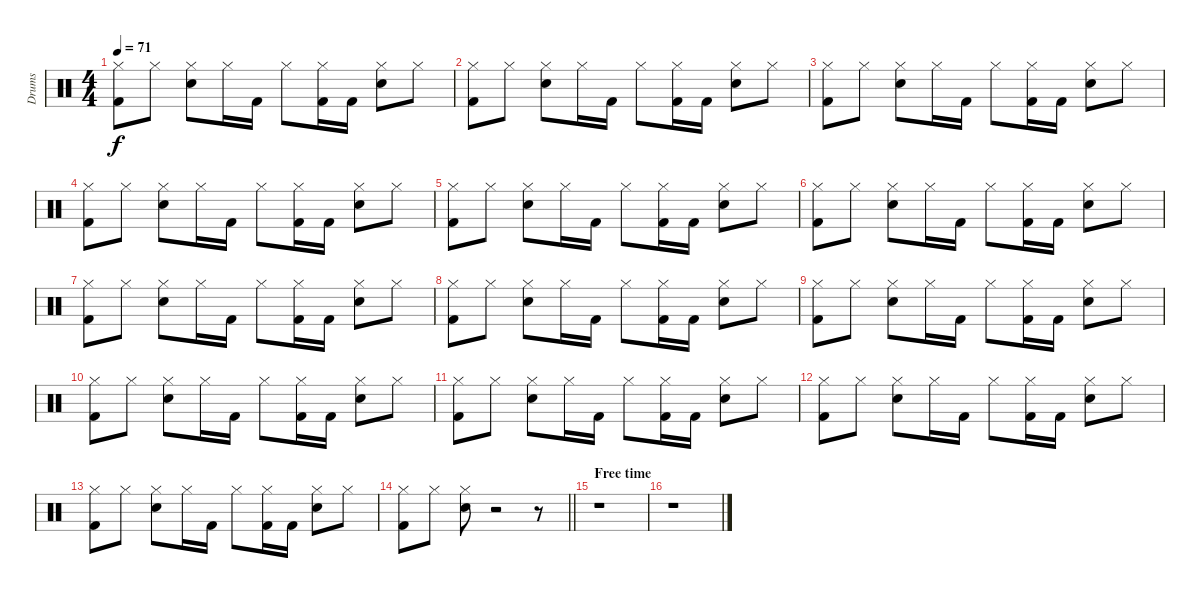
\track ("Drums" "Drums") {instrument percussion}
\staff {score}
\articulation defaults
\ts (4 4)
\tempo 71
\clef neutral
\ks c
("Hi-Hat (closed)" "Kick (hit) 2").8{dy f} "Hi-Hat (closed)".8 ("Hi-Hat (closed)" "Snare (hit) 2").8 "Hi-Hat (closed)".16 "Kick (hit) 2".16 "Hi-Hat (closed)".8 ("Hi-Hat (closed)" "Kick (hit) 2").16 "Kick (hit) 2".16 ("Hi-Hat (closed)" "Snare (hit) 2").8 "Hi-Hat (closed)".8 |
("Hi-Hat (closed)" "Kick (hit) 2").8 "Hi-Hat (closed)".8 ("Hi-Hat (closed)" "Snare (hit) 2").8 "Hi-Hat (closed)".16 "Kick (hit) 2".16 "Hi-Hat (closed)".8 ("Hi-Hat (closed)" "Kick (hit) 2").16 "Kick (hit) 2".16 ("Hi-Hat (closed)" "Snare (hit) 2").8 "Hi-Hat (closed)".8 |
("Hi-Hat (closed)" "Kick (hit) 2").8 "Hi-Hat (closed)".8 ("Hi-Hat (closed)" "Snare (hit) 2").8 "Hi-Hat (closed)".16 "Kick (hit) 2".16 "Hi-Hat (closed)".8 ("Hi-Hat (closed)" "Kick (hit) 2").16 "Kick (hit) 2".16 ("Hi-Hat (closed)" "Snare (hit) 2").8 "Hi-Hat (closed)".8 |
("Hi-Hat (closed)" "Kick (hit) 2").8 "Hi-Hat (closed)".8 ("Hi-Hat (closed)" "Snare (hit) 2").8 "Hi-Hat (closed)".16 "Kick (hit) 2".16 "Hi-Hat (closed)".8 ("Hi-Hat (closed)" "Kick (hit) 2").16 "Kick (hit) 2".16 ("Hi-Hat (closed)" "Snare (hit) 2").8 "Hi-Hat (closed)".8 |
("Hi-Hat (closed)" "Kick (hit) 2").8 "Hi-Hat (closed)".8 ("Hi-Hat (closed)" "Snare (hit) 2").8 "Hi-Hat (closed)".16 "Kick (hit) 2".16 "Hi-Hat (closed)".8 ("Hi-Hat (closed)" "Kick (hit) 2").16 "Kick (hit) 2".16 ("Hi-Hat (closed)" "Snare (hit) 2").8 "Hi-Hat (closed)".8 |
("Hi-Hat (closed)" "Kick (hit) 2").8 "Hi-Hat (closed)".8 ("Hi-Hat (closed)" "Snare (hit) 2").8 "Hi-Hat (closed)".16 "Kick (hit) 2".16 "Hi-Hat (closed)".8 ("Hi-Hat (closed)" "Kick (hit) 2").16 "Kick (hit) 2".16 ("Hi-Hat (closed)" "Snare (hit) 2").8 "Hi-Hat (closed)".8 |
("Hi-Hat (closed)" "Kick (hit) 2").8 "Hi-Hat (closed)".8 ("Hi-Hat (closed)" "Snare (hit) 2").8 "Hi-Hat (closed)".16 "Kick (hit) 2".16 "Hi-Hat (closed)".8 ("Hi-Hat (closed)" "Kick (hit) 2").16 "Kick (hit) 2".16 ("Hi-Hat (closed)" "Snare (hit) 2").8 "Hi-Hat (closed)".8 |
("Hi-Hat (closed)" "Kick (hit) 2").8 "Hi-Hat (closed)".8 ("Hi-Hat (closed)" "Snare (hit) 2").8 "Hi-Hat (closed)".16 "Kick (hit) 2".16 "Hi-Hat (closed)".8 ("Hi-Hat (closed)" "Kick (hit) 2").16 "Kick (hit) 2".16 ("Hi-Hat (closed)" "Snare (hit) 2").8 "Hi-Hat (closed)".8 |
("Hi-Hat (closed)" "Kick (hit) 2").8 "Hi-Hat (closed)".8 ("Hi-Hat (closed)" "Snare (hit) 2").8 "Hi-Hat (closed)".16 "Kick (hit) 2".16 "Hi-Hat (closed)".8 ("Hi-Hat (closed)" "Kick (hit) 2").16 "Kick (hit) 2".16 ("Hi-Hat (closed)" "Snare (hit) 2").8 "Hi-Hat (closed)".8 |
("Hi-Hat (closed)" "Kick (hit) 2").8 "Hi-Hat (closed)".8 ("Hi-Hat (closed)" "Snare (hit) 2").8 "Hi-Hat (closed)".16 "Kick (hit) 2".16 "Hi-Hat (closed)".8 ("Hi-Hat (closed)" "Kick (hit) 2").16 "Kick (hit) 2".16 ("Hi-Hat (closed)" "Snare (hit) 2").8 "Hi-Hat (closed)".8 |
("Hi-Hat (closed)" "Kick (hit) 2").8 "Hi-Hat (closed)".8 ("Hi-Hat (closed)" "Snare (hit) 2").8 "Hi-Hat (closed)".16 "Kick (hit) 2".16 "Hi-Hat (closed)".8 ("Hi-Hat (closed)" "Kick (hit) 2").16 "Kick (hit) 2".16 ("Hi-Hat (closed)" "Snare (hit) 2").8 "Hi-Hat (closed)".8 |
("Hi-Hat (closed)" "Kick (hit) 2").8 "Hi-Hat (closed)".8 ("Hi-Hat (closed)" "Snare (hit) 2").8 "Hi-Hat (closed)".16 "Kick (hit) 2".16 "Hi-Hat (closed)".8 ("Hi-Hat (closed)" "Kick (hit) 2").16 "Kick (hit) 2".16 ("Hi-Hat (closed)" "Snare (hit) 2").8 "Hi-Hat (closed)".8 |
("Hi-Hat (closed)" "Kick (hit) 2").8 "Hi-Hat (closed)".8 ("Hi-Hat (closed)" "Snare (hit) 2").8 "Hi-Hat (closed)".16 "Kick (hit) 2".16 "Hi-Hat (closed)".8 ("Hi-Hat (closed)" "Kick (hit) 2").16 "Kick (hit) 2".16 ("Hi-Hat (closed)" "Snare (hit) 2").8 "Hi-Hat (closed)".8 |
\barLineRight lightlight
("Hi-Hat (closed)" "Kick (hit) 2").8 "Hi-Hat (closed)".8 ("Snare (hit) 2" "Hi-Hat (closed)").8 r.2 r.8 |
\section ("" "Free time")
r.1 |
r.1
